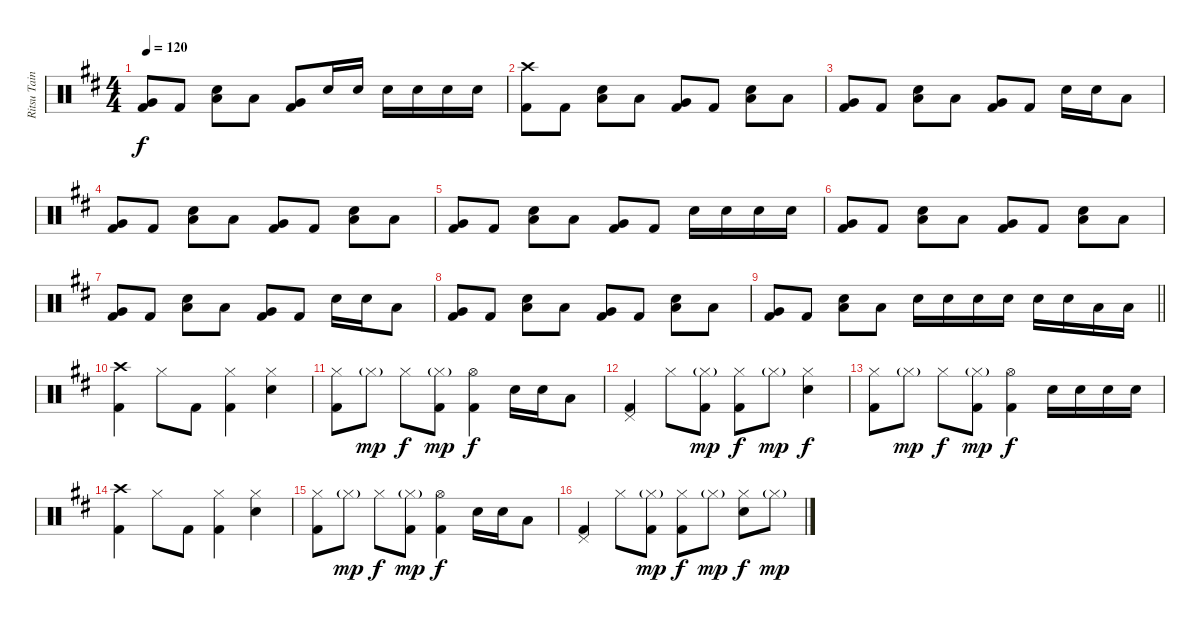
\track ("Ritsu Tainaka" "Ritsu Tain") {instrument percussion}
\staff {score}
\articulation defaults
\ts (4 4)
\tempo 120
\clef neutral
\ks d
("Very Low Tom (hit)" "Kick (hit) 2").8{dy f} "Kick (hit) 2".8 ("Snare (hit) 2" "Low Floor Tom (hit)").8 "Low Tom (hit)".8 ("Very Low Tom (hit)" "Kick (hit) 2").8 "Snare (hit) 2".16 "Snare (hit) 2".16 "Snare (hit) 2".16 "Snare (hit) 2".16 "Snare (hit) 2".16 "Snare (hit) 2".16 |
("Crash high (hit)" "Kick (hit) 2").8 "Kick (hit) 2".8 ("Snare (hit) 2" "Low Floor Tom (hit)").8 "Low Tom (hit)".8 ("Very Low Tom (hit)" "Kick (hit) 2").8 "Kick (hit) 2".8 ("Snare (hit) 2" "Low Floor Tom (hit)").8 "Low Tom (hit)".8 |
("Very Low Tom (hit)" "Kick (hit) 2").8 "Kick (hit) 2".8 ("Snare (hit) 2" "Low Floor Tom (hit)").8 "Low Tom (hit)".8 ("Very Low Tom (hit)" "Kick (hit) 2").8 "Kick (hit) 2".8 "Snare (hit) 2".16 "Snare (hit) 2".16 "Low Tom (hit)".8 |
("Very Low Tom (hit)" "Kick (hit) 2").8 "Kick (hit) 2".8 ("Snare (hit) 2" "Low Floor Tom (hit)").8 "Low Tom (hit)".8 ("Very Low Tom (hit)" "Kick (hit) 2").8 "Kick (hit) 2".8 ("Snare (hit) 2" "Low Floor Tom (hit)").8 "Low Tom (hit)".8 |
("Very Low Tom (hit)" "Kick (hit) 2").8 "Kick (hit) 2".8 ("Snare (hit) 2" "Low Floor Tom (hit)").8 "Low Tom (hit)".8 ("Very Low Tom (hit)" "Kick (hit) 2").8 "Kick (hit) 2".8 "Snare (hit) 2".16 "Snare (hit) 2".16 "Snare (hit) 2".16 "Snare (hit) 2".16 |
("Very Low Tom (hit)" "Kick (hit) 2").8 "Kick (hit) 2".8 ("Snare (hit) 2" "Low Floor Tom (hit)").8 "Low Tom (hit)".8 ("Very Low Tom (hit)" "Kick (hit) 2").8 "Kick (hit) 2".8 ("Snare (hit) 2" "Low Floor Tom (hit)").8 "Low Tom (hit)".8 |
("Very Low Tom (hit)" "Kick (hit) 2").8 "Kick (hit) 2".8 ("Snare (hit) 2" "Low Floor Tom (hit)").8 "Low Tom (hit)".8 ("Very Low Tom (hit)" "Kick (hit) 2").8 "Kick (hit) 2".8 "Snare (hit) 2".16 "Snare (hit) 2".16 "Low Tom (hit)".8 |
("Very Low Tom (hit)" "Kick (hit) 2").8 "Kick (hit) 2".8 ("Snare (hit) 2" "Low Floor Tom (hit)").8 "Low Tom (hit)".8 ("Very Low Tom (hit)" "Kick (hit) 2").8 "Kick (hit) 2".8 ("Snare (hit) 2" "Low Floor Tom (hit)").8 "Low Tom (hit)".8 |
\barLineRight lightlight
("Very Low Tom (hit)" "Kick (hit) 2").8 "Kick (hit) 2".8 ("Snare (hit) 2" "Low Floor Tom (hit)").8 "Low Tom (hit)".8 "Snare (hit) 2".16 "Snare (hit) 2".16 "Snare (hit) 2".16 "Snare (hit) 2".16 "Snare (hit) 2".16 "Snare (hit) 2".16 "Low Tom (hit)".16 "Low Tom (hit)".16 |
("Crash high (hit)" "Kick (hit) 2").4 "Hi-Hat (closed)".8 "Kick (hit) 2".8 ("Hi-Hat (closed)" "Kick (hit) 2").4 ("Hi-Hat (closed)" "Snare (hit) 2").4 |
("Hi-Hat (closed)" "Kick (hit) 2").8 "Hi-Hat (closed)"{g}.8{dy mp} "Hi-Hat (closed)".8{dy f} ("Hi-Hat (closed)"{g} "Kick (hit) 2").8{dy mp} ("Hi-Hat (open)" "Kick (hit) 2").4{dy f} "Snare (hit) 2".16 "Snare (hit) 2".16 "Low Tom (hit)".8 |
("Pedal Hi-Hat (hit)" "Kick (hit) 2").4 "Hi-Hat (closed)".8 ("Hi-Hat (closed)"{g} "Kick (hit) 2").8{dy mp} ("Hi-Hat (closed)" "Kick (hit) 2").8{dy f} "Hi-Hat (closed)"{g}.8{dy mp} ("Hi-Hat (closed)" "Snare (hit) 2").4{dy f} |
("Hi-Hat (closed)" "Kick (hit) 2").8 "Hi-Hat (closed)"{g}.8{dy mp} "Hi-Hat (closed)".8{dy f} ("Hi-Hat (closed)"{g} "Kick (hit) 2").8{dy mp} ("Hi-Hat (open)" "Kick (hit) 2").4{dy f} "Snare (hit) 2".16 "Snare (hit) 2".16 "Snare (hit) 2".16 "Snare (hit) 2".16 |
("Crash high (hit)" "Kick (hit) 2").4 "Hi-Hat (closed)".8 "Kick (hit) 2".8 ("Hi-Hat (closed)" "Kick (hit) 2").4 ("Hi-Hat (closed)" "Snare (hit) 2").4 |
("Hi-Hat (closed)" "Kick (hit) 2").8 "Hi-Hat (closed)"{g}.8{dy mp} "Hi-Hat (closed)".8{dy f} ("Hi-Hat (closed)"{g} "Kick (hit) 2").8{dy mp} ("Hi-Hat (open)" "Kick (hit) 2").4{dy f} "Snare (hit) 2".16 "Snare (hit) 2".16 "Low Tom (hit)".8 |
("Pedal Hi-Hat (hit)" "Kick (hit) 2").4 "Hi-Hat (closed)".8 ("Hi-Hat (closed)"{g} "Kick (hit) 2").8{dy mp} ("Hi-Hat (closed)" "Kick (hit) 2").8{dy f} "Hi-Hat (closed)"{g}.8{dy mp} ("Hi-Hat (closed)" "Snare (hit) 2").8{dy f} "Hi-Hat (closed)"{g}.8{dy mp}
